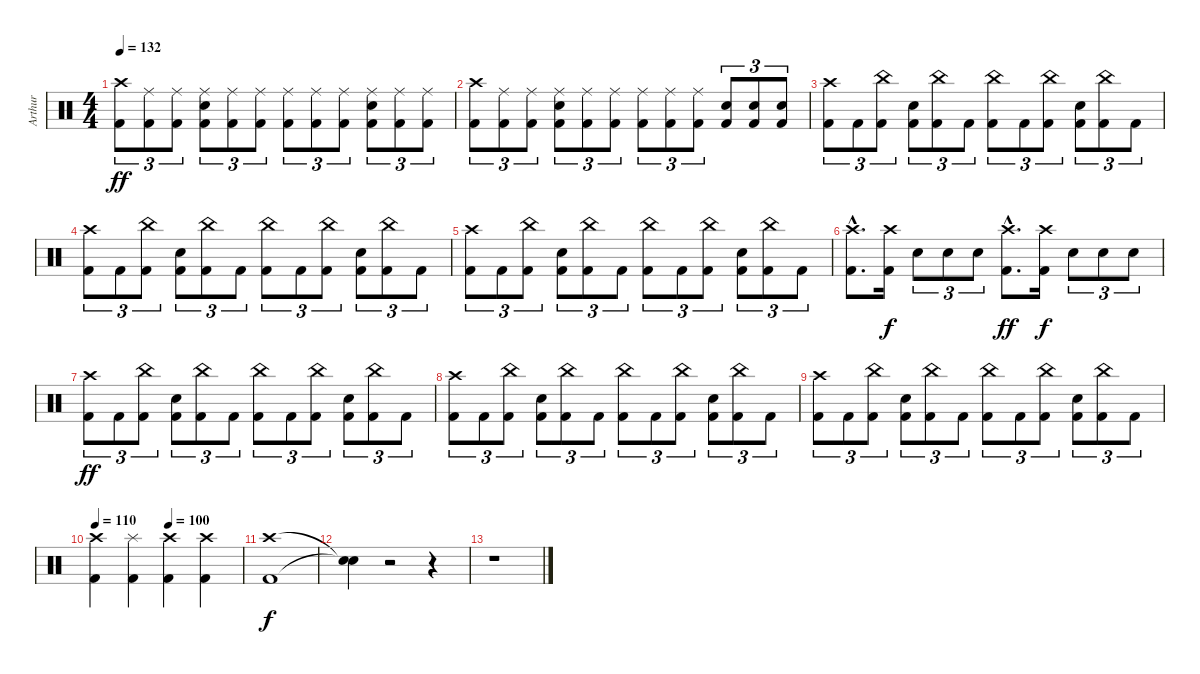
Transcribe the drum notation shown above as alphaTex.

\track ("Arthur" "Arthur") {instrument percussion}
\staff {score}
\articulation defaults
\ts (4 4)
\tempo 132
\clef neutral
\ks c
("Crash high (hit)" "Kick (hit) 2").8{tu (3 2) dy ff} ("Ride (middle)" "Kick (hit) 2").8{tu (3 2)} ("Ride (middle)" "Kick (hit) 2").8{tu (3 2)} ("Ride (middle)" "Electric Snare (hit)" "Kick (hit) 2").8{tu (3 2)} ("Ride (middle)" "Kick (hit) 2").8{tu (3 2)} ("Ride (middle)" "Kick (hit) 2").8{tu (3 2)} ("Ride (middle)" "Kick (hit) 2").8{tu (3 2)} ("Ride (middle)" "Kick (hit) 2").8{tu (3 2)} ("Ride (middle)" "Kick (hit) 2").8{tu (3 2)} ("Ride (middle)" "Electric Snare (hit)" "Kick (hit) 2").8{tu (3 2)} ("Ride (middle)" "Kick (hit) 2").8{tu (3 2)} ("Ride (middle)" "Kick (hit) 2").8{tu (3 2)} |
("Crash high (hit)" "Kick (hit) 2").8{tu (3 2)} ("Ride (middle)" "Kick (hit) 2").8{tu (3 2)} ("Ride (middle)" "Kick (hit) 2").8{tu (3 2)} ("Ride (middle)" "Electric Snare (hit)" "Kick (hit) 2").8{tu (3 2)} ("Ride (middle)" "Kick (hit) 2").8{tu (3 2)} ("Ride (middle)" "Kick (hit) 2").8{tu (3 2)} ("Ride (middle)" "Kick (hit) 2").8{tu (3 2)} ("Ride (middle)" "Kick (hit) 2").8{tu (3 2)} ("Ride (middle)" "Kick (hit) 2").8{tu (3 2)} ("Electric Snare (hit)" "Kick (hit) 2").8{tu (3 2)} ("Electric Snare (hit)" "Kick (hit) 2").8{tu (3 2)} ("Electric Snare (hit)" "Kick (hit) 2").8{tu (3 2)} |
("Crash high (hit)" "Kick (hit) 2").8{tu (3 2)} "Kick (hit) 2".8{tu (3 2)} ("China (hit)" "Kick (hit) 2").8{tu (3 2)} ("Electric Snare (hit)" "Kick (hit) 2").8{tu (3 2)} ("China (hit)" "Kick (hit) 2").8{tu (3 2)} "Kick (hit) 2".8{tu (3 2)} ("China (hit)" "Kick (hit) 2").8{tu (3 2)} "Kick (hit) 2".8{tu (3 2)} ("China (hit)" "Kick (hit) 2").8{tu (3 2)} ("Electric Snare (hit)" "Kick (hit) 2").8{tu (3 2)} ("China (hit)" "Kick (hit) 2").8{tu (3 2)} "Kick (hit) 2".8{tu (3 2)} |
("Crash high (hit)" "Kick (hit) 2").8{tu (3 2)} "Kick (hit) 2".8{tu (3 2)} ("China (hit)" "Kick (hit) 2").8{tu (3 2)} ("Electric Snare (hit)" "Kick (hit) 2").8{tu (3 2)} ("China (hit)" "Kick (hit) 2").8{tu (3 2)} "Kick (hit) 2".8{tu (3 2)} ("China (hit)" "Kick (hit) 2").8{tu (3 2)} "Kick (hit) 2".8{tu (3 2)} ("China (hit)" "Kick (hit) 2").8{tu (3 2)} ("Electric Snare (hit)" "Kick (hit) 2").8{tu (3 2)} ("China (hit)" "Kick (hit) 2").8{tu (3 2)} "Kick (hit) 2".8{tu (3 2)} |
("Crash high (hit)" "Kick (hit) 2").8{tu (3 2)} "Kick (hit) 2".8{tu (3 2)} ("China (hit)" "Kick (hit) 2").8{tu (3 2)} ("Electric Snare (hit)" "Kick (hit) 2").8{tu (3 2)} ("China (hit)" "Kick (hit) 2").8{tu (3 2)} "Kick (hit) 2".8{tu (3 2)} ("China (hit)" "Kick (hit) 2").8{tu (3 2)} "Kick (hit) 2".8{tu (3 2)} ("China (hit)" "Kick (hit) 2").8{tu (3 2)} ("Electric Snare (hit)" "Kick (hit) 2").8{tu (3 2)} ("China (hit)" "Kick (hit) 2").8{tu (3 2)} "Kick (hit) 2".8{tu (3 2)} |
("Crash high (hit)"{hac} "Kick (hit) 2"{hac}).8{d} ("Crash high (hit)" "Kick (hit) 2").16{dy f} "Electric Snare (hit)".8{tu (3 2)} "Electric Snare (hit)".8{tu (3 2)} "Electric Snare (hit)".8{tu (3 2)} ("Crash high (hit)"{hac} "Kick (hit) 2"{hac}).8{d dy ff} ("Crash high (hit)" "Kick (hit) 2").16{dy f} "Electric Snare (hit)".8{tu (3 2)} "Electric Snare (hit)".8{tu (3 2)} "Electric Snare (hit)".8{tu (3 2)} |
("Crash high (hit)" "Kick (hit) 2").8{tu (3 2) dy ff} "Kick (hit) 2".8{tu (3 2)} ("China (hit)" "Kick (hit) 2").8{tu (3 2)} ("Electric Snare (hit)" "Kick (hit) 2").8{tu (3 2)} ("China (hit)" "Kick (hit) 2").8{tu (3 2)} "Kick (hit) 2".8{tu (3 2)} ("China (hit)" "Kick (hit) 2").8{tu (3 2)} "Kick (hit) 2".8{tu (3 2)} ("China (hit)" "Kick (hit) 2").8{tu (3 2)} ("Electric Snare (hit)" "Kick (hit) 2").8{tu (3 2)} ("China (hit)" "Kick (hit) 2").8{tu (3 2)} "Kick (hit) 2".8{tu (3 2)} |
("Crash high (hit)" "Kick (hit) 2").8{tu (3 2)} "Kick (hit) 2".8{tu (3 2)} ("China (hit)" "Kick (hit) 2").8{tu (3 2)} ("Electric Snare (hit)" "Kick (hit) 2").8{tu (3 2)} ("China (hit)" "Kick (hit) 2").8{tu (3 2)} "Kick (hit) 2".8{tu (3 2)} ("China (hit)" "Kick (hit) 2").8{tu (3 2)} "Kick (hit) 2".8{tu (3 2)} ("China (hit)" "Kick (hit) 2").8{tu (3 2)} ("Electric Snare (hit)" "Kick (hit) 2").8{tu (3 2)} ("China (hit)" "Kick (hit) 2").8{tu (3 2)} "Kick (hit) 2".8{tu (3 2)} |
("Crash high (hit)" "Kick (hit) 2").8{tu (3 2)} "Kick (hit) 2".8{tu (3 2)} ("China (hit)" "Kick (hit) 2").8{tu (3 2)} ("Electric Snare (hit)" "Kick (hit) 2").8{tu (3 2)} ("China (hit)" "Kick (hit) 2").8{tu (3 2)} "Kick (hit) 2".8{tu (3 2)} ("China (hit)" "Kick (hit) 2").8{tu (3 2)} "Kick (hit) 2".8{tu (3 2)} ("China (hit)" "Kick (hit) 2").8{tu (3 2)} ("Electric Snare (hit)" "Kick (hit) 2").8{tu (3 2)} ("China (hit)" "Kick (hit) 2").8{tu (3 2)} "Kick (hit) 2".8{tu (3 2)} |
\tempo 110
\tempo (100 0.5)
("Crash high (hit)" "Kick (hit) 2").4 ("Splash (hit)" "Kick (hit) 2").4 ("Crash high (hit)" "Kick (hit) 2").4 ("Crash high (hit)" "Kick (hit) 2").4 |
("Crash high (hit)" "Kick (hit) 2").1{dy f} |
("Snare (hit)"{t} "Snare (hit)"{t}).4 r.2 r.4 |
r.1
